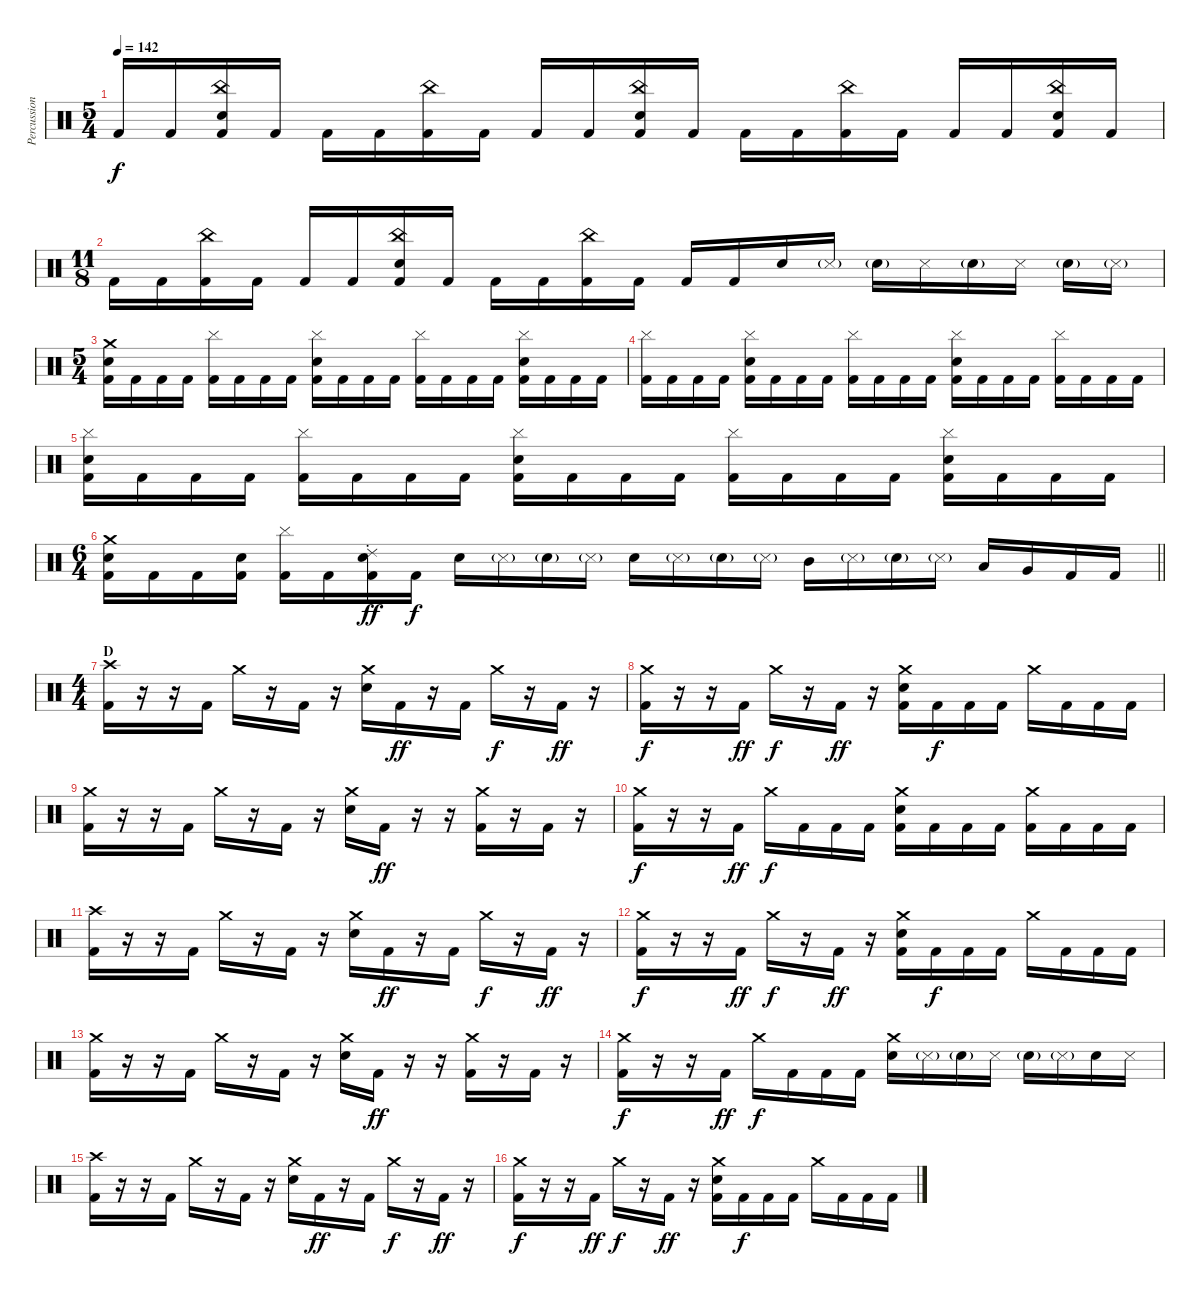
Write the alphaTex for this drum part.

\track ("Percussion" "Percussion") {instrument percussion}
\staff {score}
\articulation defaults
\ts (5 4)
\tempo 142
\clef neutral
\ks c "Kick (hit) 2".16{dy f} "Kick (hit) 2".16
("China (hit)" "Snare (hit) 2" "Kick (hit) 2").16 "Kick (hit) 2".16 "Kick (hit) 2".16 "Kick (hit) 2".16 ("China (hit)" "Kick (hit) 2").16 "Kick (hit) 2".16 "Kick (hit) 2".16 "Kick (hit) 2".16 ("China (hit)" "Snare (hit) 2" "Kick (hit) 2").16 "Kick (hit) 2".16 "Kick (hit) 2".16 "Kick (hit) 2".16 ("China (hit)" "Kick (hit) 2").16 "Kick (hit) 2".16 "Kick (hit) 2".16 "Kick (hit) 2".16 ("China (hit)" "Snare (hit) 2" "Kick (hit) 2").16 "Kick (hit) 2".16 |
\ts (11 8)
"Kick (hit) 2".16 "Kick (hit) 2".16 ("China (hit)" "Kick (hit) 2").16 "Kick (hit) 2".16 "Kick (hit) 2".16 "Kick (hit) 2".16 ("China (hit)" "Snare (hit) 2" "Kick (hit) 2").16 "Kick (hit) 2".16 "Kick (hit) 2".16 "Kick (hit) 2".16 ("China (hit)" "Kick (hit) 2").16 "Kick (hit) 2".16 "Kick (hit) 2".16 "Kick (hit) 2".16 "Snare (hit) 2".16 "Metronome (hit)"{g}.16 "Snare (hit) 2"{g}.16 "Metronome (hit)".16 "Snare (hit) 2"{g}.16 "Metronome (hit)".16 "Snare (hit) 2"{g}.16 "Metronome (hit)"{g}.16 |
\ts (5 4)
("Crash medium (hit)" "Snare (hit) 2" "Kick (hit) 2").16 "Kick (hit) 2".16 "Kick (hit) 2".16 "Kick (hit) 2".16 ("Cymbal (hit)" "Kick (hit) 2").16 "Kick (hit) 2".16 "Kick (hit) 2".16 "Kick (hit) 2".16 ("Cymbal (hit)" "Snare (hit) 2" "Kick (hit) 2").16 "Kick (hit) 2".16 "Kick (hit) 2".16 "Kick (hit) 2".16 ("Cymbal (hit)" "Kick (hit) 2").16 "Kick (hit) 2".16 "Kick (hit) 2".16 "Kick (hit) 2".16 ("Cymbal (hit)" "Snare (hit) 2" "Kick (hit) 2").16 "Kick (hit) 2".16 "Kick (hit) 2".16 "Kick (hit) 2".16 |
("Cymbal (hit)" "Kick (hit) 2").16 "Kick (hit) 2".16 "Kick (hit) 2".16 "Kick (hit) 2".16 ("Cymbal (hit)" "Snare (hit) 2" "Kick (hit) 2").16 "Kick (hit) 2".16 "Kick (hit) 2".16 "Kick (hit) 2".16 ("Cymbal (hit)" "Kick (hit) 2").16 "Kick (hit) 2".16 "Kick (hit) 2".16 "Kick (hit) 2".16 ("Cymbal (hit)" "Snare (hit) 2" "Kick (hit) 2").16 "Kick (hit) 2".16 "Kick (hit) 2".16 "Kick (hit) 2".16 ("Cymbal (hit)" "Kick (hit) 2").16 "Kick (hit) 2".16 "Kick (hit) 2".16 "Kick (hit) 2".16 |
("Cymbal (hit)" "Snare (hit) 2" "Kick (hit) 2").16 "Kick (hit) 2".16 "Kick (hit) 2".16 "Kick (hit) 2".16 ("Cymbal (hit)" "Kick (hit) 2").16 "Kick (hit) 2".16 "Kick (hit) 2".16 "Kick (hit) 2".16 ("Cymbal (hit)" "Snare (hit) 2" "Kick (hit) 2").16 "Kick (hit) 2".16 "Kick (hit) 2".16 "Kick (hit) 2".16 ("Cymbal (hit)" "Kick (hit) 2").16 "Kick (hit) 2".16 "Kick (hit) 2".16 "Kick (hit) 2".16 ("Cymbal (hit)" "Snare (hit) 2" "Kick (hit) 2").16 "Kick (hit) 2".16 "Kick (hit) 2".16 "Kick (hit) 2".16 |
\ts (6 4)
\barLineRight lightlight
("Crash medium (hit)" "Snare (hit) 2" "Kick (hit) 2").16 "Kick (hit) 2".16 "Kick (hit) 2".16 ("Snare (hit) 2" "Kick (hit) 2").16 ("Cymbal (hit)" "Kick (hit) 2").16 "Kick (hit) 2".16 ("Ride (choke) 2" "Snare (hit) 2" "Kick (hit) 2").16{dy ff} "Kick (hit) 2".16{dy f} "Snare (hit) 2".16 "Metronome (hit)"{g}.16 "Snare (hit) 2"{g}.16 "Metronome (hit)"{g}.16 "Snare (hit) 2".16 "Metronome (hit)"{g}.16 "Snare (hit) 2"{g}.16 "Metronome (hit)"{g}.16 "Mid Tom (hit)".16 "Metronome (hit)"{g}.16 "Snare (hit) 2"{g}.16 "Metronome (hit)"{g}.16 "Low Tom (hit)".16 "Very Low Tom (hit)".16 "Kick (hit) 2".16 "Kick (hit) 2".16 |
\ts (4 4)
\section ("" "D")
("Crash high (hit)" "Kick (hit) 2").16 r.16 r.16 "Kick (hit) 2".16 "Crash medium (hit)".16 r.16 "Kick (hit) 2".16 r.16 ("Crash medium (hit)" "Snare (hit) 2").16 "Kick (hit) 2".16{dy ff} r.16 "Kick (hit) 2".16 "Crash medium (hit)".16{dy f} r.16 "Kick (hit) 2".16{dy ff} r.16 |
("Crash medium (hit)" "Kick (hit) 2").16{dy f} r.16 r.16 "Kick (hit) 2".16{dy ff} "Crash medium (hit)".16{dy f} r.16 "Kick (hit) 2".16{dy ff} r.16 ("Crash medium (hit)" "Snare (hit) 2" "Kick (hit) 2").16 "Kick (hit) 2".16{dy f} "Kick (hit) 2".16 "Kick (hit) 2".16 "Crash medium (hit)".16 "Kick (hit) 2".16 "Kick (hit) 2".16 "Kick (hit) 2".16 |
("Crash medium (hit)" "Kick (hit) 2").16 r.16 r.16 "Kick (hit) 2".16 "Crash medium (hit)".16 r.16 "Kick (hit) 2".16 r.16 ("Crash medium (hit)" "Snare (hit) 2").16 "Kick (hit) 2".16{dy ff} r.16 r.16 ("Crash medium (hit)" "Kick (hit) 2").16 r.16 "Kick (hit) 2".16 r.16 |
("Crash medium (hit)" "Kick (hit) 2").16{dy f} r.16 r.16 "Kick (hit) 2".16{dy ff} "Crash medium (hit)".16{dy f} "Kick (hit) 2".16 "Kick (hit) 2".16 "Kick (hit) 2".16 ("Crash medium (hit)" "Snare (hit) 2" "Kick (hit) 2").16 "Kick (hit) 2".16 "Kick (hit) 2".16 "Kick (hit) 2".16 ("Crash medium (hit)" "Kick (hit) 2").16 "Kick (hit) 2".16 "Kick (hit) 2".16 "Kick (hit) 2".16 |
("Crash high (hit)" "Kick (hit) 2").16 r.16 r.16 "Kick (hit) 2".16 "Crash medium (hit)".16 r.16 "Kick (hit) 2".16 r.16 ("Crash medium (hit)" "Snare (hit) 2").16 "Kick (hit) 2".16{dy ff} r.16 "Kick (hit) 2".16 "Crash medium (hit)".16{dy f} r.16 "Kick (hit) 2".16{dy ff} r.16 |
("Crash medium (hit)" "Kick (hit) 2").16{dy f} r.16 r.16 "Kick (hit) 2".16{dy ff} "Crash medium (hit)".16{dy f} r.16 "Kick (hit) 2".16{dy ff} r.16 ("Crash medium (hit)" "Snare (hit) 2" "Kick (hit) 2").16 "Kick (hit) 2".16{dy f} "Kick (hit) 2".16 "Kick (hit) 2".16 "Crash medium (hit)".16 "Kick (hit) 2".16 "Kick (hit) 2".16 "Kick (hit) 2".16 |
("Crash medium (hit)" "Kick (hit) 2").16 r.16 r.16 "Kick (hit) 2".16 "Crash medium (hit)".16 r.16 "Kick (hit) 2".16 r.16 ("Crash medium (hit)" "Snare (hit) 2").16 "Kick (hit) 2".16{dy ff} r.16 r.16 ("Crash medium (hit)" "Kick (hit) 2").16 r.16 "Kick (hit) 2".16 r.16 |
("Crash medium (hit)" "Kick (hit) 2").16{dy f} r.16 r.16 "Kick (hit) 2".16{dy ff} "Crash medium (hit)".16{dy f} "Kick (hit) 2".16 "Kick (hit) 2".16 "Kick (hit) 2".16 ("Crash medium (hit)" "Snare (hit) 2").16 "Metronome (hit)"{g}.16 "Snare (hit) 2"{g}.16 "Metronome (hit)".16 "Snare (hit) 2"{g}.16 "Metronome (hit)"{g}.16 "Snare (hit) 2".16 "Metronome (hit)".16 |
("Crash high (hit)" "Kick (hit) 2").16 r.16 r.16 "Kick (hit) 2".16 "Crash medium (hit)".16 r.16 "Kick (hit) 2".16 r.16 ("Crash medium (hit)" "Snare (hit) 2").16 "Kick (hit) 2".16{dy ff} r.16 "Kick (hit) 2".16 "Crash medium (hit)".16{dy f} r.16 "Kick (hit) 2".16{dy ff} r.16 |
("Crash medium (hit)" "Kick (hit) 2").16{dy f} r.16 r.16 "Kick (hit) 2".16{dy ff} "Crash medium (hit)".16{dy f} r.16 "Kick (hit) 2".16{dy ff} r.16 ("Crash medium (hit)" "Snare (hit) 2" "Kick (hit) 2").16 "Kick (hit) 2".16{dy f} "Kick (hit) 2".16 "Kick (hit) 2".16 "Crash medium (hit)".16 "Kick (hit) 2".16 "Kick (hit) 2".16 "Kick (hit) 2".16
